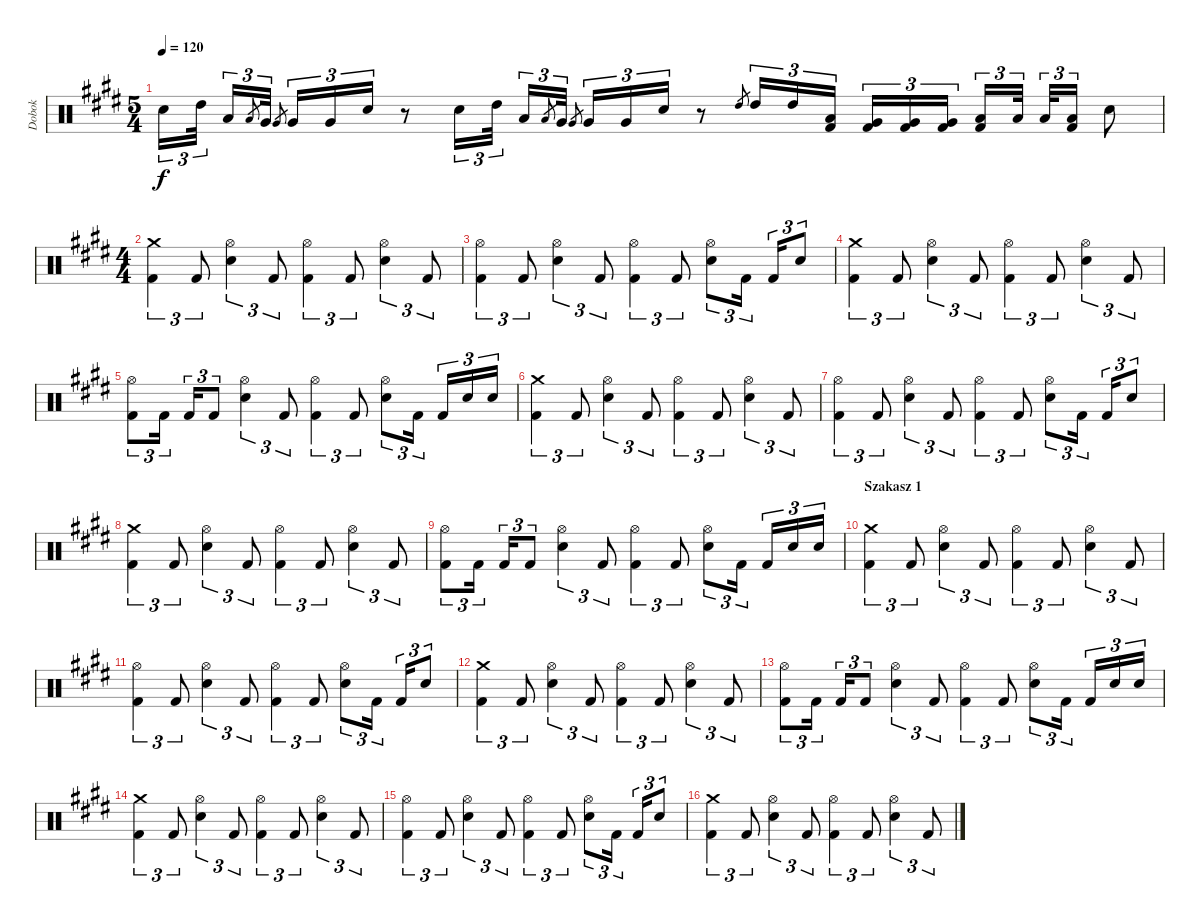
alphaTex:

\track ("Dobok" "Dobok") {instrument percussion}
\staff {score}
\articulation defaults
\ts (5 4)
\tempo 120
\clef neutral
\ks c#minor "Snare (hit) 2".16{tu (3 2) dy f} "High Tom (hit)".32{tu (3 2)} "Low Tom (hit)".16{tu (3 2)} "Low Tom (hit)".8{gr} "Very Low Tom (hit)".32{tu (3 2)} "Very Low Tom (hit)".8{gr} "Very Low Tom (hit)".16{tu (3 2)} "Very Low Tom (hit)".16{tu (3 2)} "Snare (hit) 2".16{tu (3 2)}
r.8 "Snare (hit) 2".16{tu (3 2)} "High Tom (hit)".32{tu (3 2)} "Low Tom (hit)".16{tu (3 2)} "Low Tom (hit)".8{gr} "Very Low Tom (hit)".32{tu (3 2)} "Very Low Tom (hit)".8{gr} "Very Low Tom (hit)".16{tu (3 2)} "Very Low Tom (hit)".16{tu (3 2)} "Snare (hit) 2".16{tu (3 2)} r.8 "High Tom (hit)".8{gr} "High Tom (hit)".16{tu (3 2)} "High Tom (hit)".16{tu (3 2)} ("Low Tom (hit)" "Kick (hit) 2").16{tu (3 2)} ("Very Low Tom (hit)" "Kick (hit) 2").16{tu (3 2)} ("Very Low Tom (hit)" "Kick (hit) 2").16{tu (3 2)} ("Very Low Tom (hit)" "Kick (hit) 2").16{tu (3 2)} ("Low Floor Tom (hit)" "Kick (hit) 2").16{tu (3 2)} "Low Floor Tom (hit)".32{tu (3 2)} "Low Floor Tom (hit)".32{tu (3 2)} ("Low Floor Tom (hit)" "Kick (hit) 2").16{tu (3 2)} "Snare (hit) 2".8 |
\ts (4 4)
("Crash medium (hit)" "Kick (hit) 2").4{tu (3 2)} "Kick (hit) 2".8{tu (3 2)} ("Hi-Hat (open)" "Snare (hit) 2").4{tu (3 2)} "Kick (hit) 2".8{tu (3 2)} ("Hi-Hat (open)" "Kick (hit) 2").4{tu (3 2)} "Kick (hit) 2".8{tu (3 2)} ("Hi-Hat (open)" "Snare (hit) 2").4{tu (3 2)} "Kick (hit) 2".8{tu (3 2)} |
("Hi-Hat (open)" "Kick (hit) 2").4{tu (3 2)} "Kick (hit) 2".8{tu (3 2)} ("Hi-Hat (open)" "Snare (hit) 2").4{tu (3 2)} "Kick (hit) 2".8{tu (3 2)} ("Hi-Hat (open)" "Kick (hit) 2").4{tu (3 2)} "Kick (hit) 2".8{tu (3 2)} ("Hi-Hat (open)" "Snare (hit) 2").8{tu (3 2)} "Kick (hit) 2".16{tu (3 2)} "Kick (hit) 2".16{tu (3 2)} "Snare (hit) 2".8{tu (3 2)} |
("Crash medium (hit)" "Kick (hit) 2").4{tu (3 2)} "Kick (hit) 2".8{tu (3 2)} ("Hi-Hat (open)" "Snare (hit) 2").4{tu (3 2)} "Kick (hit) 2".8{tu (3 2)} ("Hi-Hat (open)" "Kick (hit) 2").4{tu (3 2)} "Kick (hit) 2".8{tu (3 2)} ("Hi-Hat (open)" "Snare (hit) 2").4{tu (3 2)} "Kick (hit) 2".8{tu (3 2)} |
("Hi-Hat (open)" "Kick (hit) 2").8{tu (3 2)} "Kick (hit) 2".16{tu (3 2)} "Kick (hit) 2".16{tu (3 2)} "Kick (hit) 2".8{tu (3 2)} ("Hi-Hat (open)" "Snare (hit) 2").4{tu (3 2)} "Kick (hit) 2".8{tu (3 2)} ("Hi-Hat (open)" "Kick (hit) 2").4{tu (3 2)} "Kick (hit) 2".8{tu (3 2)} ("Hi-Hat (open)" "Snare (hit) 2").8{tu (3 2)} "Kick (hit) 2".16{tu (3 2)} "Kick (hit) 2".16{tu (3 2)} "Snare (hit) 2".16{tu (3 2)} "Snare (hit) 2".16{tu (3 2)} |
("Crash medium (hit)" "Kick (hit) 2").4{tu (3 2)} "Kick (hit) 2".8{tu (3 2)} ("Hi-Hat (open)" "Snare (hit) 2").4{tu (3 2)} "Kick (hit) 2".8{tu (3 2)} ("Hi-Hat (open)" "Kick (hit) 2").4{tu (3 2)} "Kick (hit) 2".8{tu (3 2)} ("Hi-Hat (open)" "Snare (hit) 2").4{tu (3 2)} "Kick (hit) 2".8{tu (3 2)} |
("Hi-Hat (open)" "Kick (hit) 2").4{tu (3 2)} "Kick (hit) 2".8{tu (3 2)} ("Hi-Hat (open)" "Snare (hit) 2").4{tu (3 2)} "Kick (hit) 2".8{tu (3 2)} ("Hi-Hat (open)" "Kick (hit) 2").4{tu (3 2)} "Kick (hit) 2".8{tu (3 2)} ("Hi-Hat (open)" "Snare (hit) 2").8{tu (3 2)} "Kick (hit) 2".16{tu (3 2)} "Kick (hit) 2".16{tu (3 2)} "Snare (hit) 2".8{tu (3 2)} |
("Crash medium (hit)" "Kick (hit) 2").4{tu (3 2)} "Kick (hit) 2".8{tu (3 2)} ("Hi-Hat (open)" "Snare (hit) 2").4{tu (3 2)} "Kick (hit) 2".8{tu (3 2)} ("Hi-Hat (open)" "Kick (hit) 2").4{tu (3 2)} "Kick (hit) 2".8{tu (3 2)} ("Hi-Hat (open)" "Snare (hit) 2").4{tu (3 2)} "Kick (hit) 2".8{tu (3 2)} |
("Hi-Hat (open)" "Kick (hit) 2").8{tu (3 2)} "Kick (hit) 2".16{tu (3 2)} "Kick (hit) 2".16{tu (3 2)} "Kick (hit) 2".8{tu (3 2)} ("Hi-Hat (open)" "Snare (hit) 2").4{tu (3 2)} "Kick (hit) 2".8{tu (3 2)} ("Hi-Hat (open)" "Kick (hit) 2").4{tu (3 2)} "Kick (hit) 2".8{tu (3 2)} ("Hi-Hat (open)" "Snare (hit) 2").8{tu (3 2)} "Kick (hit) 2".16{tu (3 2)} "Kick (hit) 2".16{tu (3 2)} "Snare (hit) 2".16{tu (3 2)} "Snare (hit) 2".16{tu (3 2)} |
\section ("" "Szakasz 1")
("Crash medium (hit)" "Kick (hit) 2").4{tu (3 2)} "Kick (hit) 2".8{tu (3 2)} ("Hi-Hat (open)" "Snare (hit) 2").4{tu (3 2)} "Kick (hit) 2".8{tu (3 2)} ("Hi-Hat (open)" "Kick (hit) 2").4{tu (3 2)} "Kick (hit) 2".8{tu (3 2)} ("Hi-Hat (open)" "Snare (hit) 2").4{tu (3 2)} "Kick (hit) 2".8{tu (3 2)} |
("Hi-Hat (open)" "Kick (hit) 2").4{tu (3 2)} "Kick (hit) 2".8{tu (3 2)} ("Hi-Hat (open)" "Snare (hit) 2").4{tu (3 2)} "Kick (hit) 2".8{tu (3 2)} ("Hi-Hat (open)" "Kick (hit) 2").4{tu (3 2)} "Kick (hit) 2".8{tu (3 2)} ("Hi-Hat (open)" "Snare (hit) 2").8{tu (3 2)} "Kick (hit) 2".16{tu (3 2)} "Kick (hit) 2".16{tu (3 2)} "Snare (hit) 2".8{tu (3 2)} |
("Crash medium (hit)" "Kick (hit) 2").4{tu (3 2)} "Kick (hit) 2".8{tu (3 2)} ("Hi-Hat (open)" "Snare (hit) 2").4{tu (3 2)} "Kick (hit) 2".8{tu (3 2)} ("Hi-Hat (open)" "Kick (hit) 2").4{tu (3 2)} "Kick (hit) 2".8{tu (3 2)} ("Hi-Hat (open)" "Snare (hit) 2").4{tu (3 2)} "Kick (hit) 2".8{tu (3 2)} |
("Hi-Hat (open)" "Kick (hit) 2").8{tu (3 2)} "Kick (hit) 2".16{tu (3 2)} "Kick (hit) 2".16{tu (3 2)} "Kick (hit) 2".8{tu (3 2)} ("Hi-Hat (open)" "Snare (hit) 2").4{tu (3 2)} "Kick (hit) 2".8{tu (3 2)} ("Hi-Hat (open)" "Kick (hit) 2").4{tu (3 2)} "Kick (hit) 2".8{tu (3 2)} ("Hi-Hat (open)" "Snare (hit) 2").8{tu (3 2)} "Kick (hit) 2".16{tu (3 2)} "Kick (hit) 2".16{tu (3 2)} "Snare (hit) 2".16{tu (3 2)} "Snare (hit) 2".16{tu (3 2)} |
("Crash medium (hit)" "Kick (hit) 2").4{tu (3 2)} "Kick (hit) 2".8{tu (3 2)} ("Hi-Hat (open)" "Snare (hit) 2").4{tu (3 2)} "Kick (hit) 2".8{tu (3 2)} ("Hi-Hat (open)" "Kick (hit) 2").4{tu (3 2)} "Kick (hit) 2".8{tu (3 2)} ("Hi-Hat (open)" "Snare (hit) 2").4{tu (3 2)} "Kick (hit) 2".8{tu (3 2)} |
("Hi-Hat (open)" "Kick (hit) 2").4{tu (3 2)} "Kick (hit) 2".8{tu (3 2)} ("Hi-Hat (open)" "Snare (hit) 2").4{tu (3 2)} "Kick (hit) 2".8{tu (3 2)} ("Hi-Hat (open)" "Kick (hit) 2").4{tu (3 2)} "Kick (hit) 2".8{tu (3 2)} ("Hi-Hat (open)" "Snare (hit) 2").8{tu (3 2)} "Kick (hit) 2".16{tu (3 2)} "Kick (hit) 2".16{tu (3 2)} "Snare (hit) 2".8{tu (3 2)} |
("Crash medium (hit)" "Kick (hit) 2").4{tu (3 2)} "Kick (hit) 2".8{tu (3 2)} ("Hi-Hat (open)" "Snare (hit) 2").4{tu (3 2)} "Kick (hit) 2".8{tu (3 2)} ("Hi-Hat (open)" "Kick (hit) 2").4{tu (3 2)} "Kick (hit) 2".8{tu (3 2)} ("Hi-Hat (open)" "Snare (hit) 2").4{tu (3 2)} "Kick (hit) 2".8{tu (3 2)}
